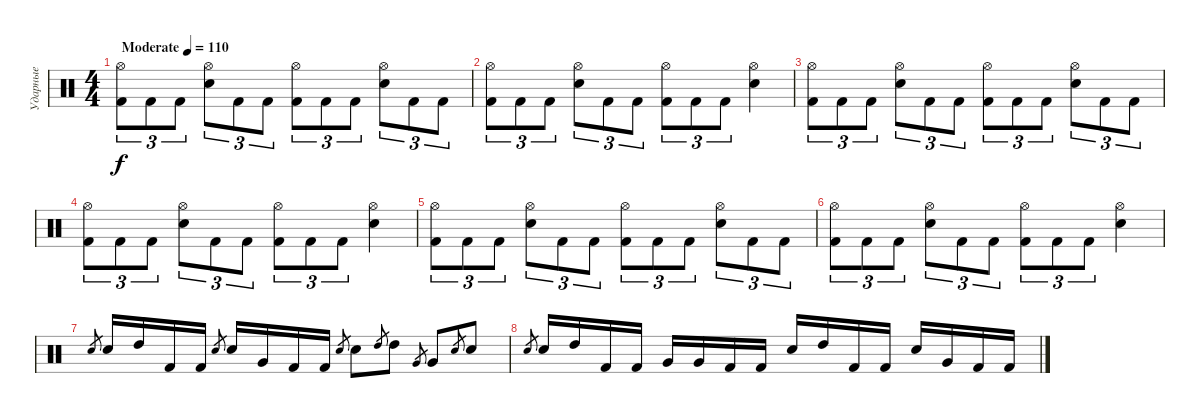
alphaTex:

\track ("Ударные" "Ударные") {instrument percussion}
\staff {score}
\articulation defaults
\ts (4 4)
\tempo (110 "Moderate")
\clef neutral
\ks c
("Kick (hit) 2" "Hi-Hat (open)").8{tu (3 2) dy f} "Kick (hit) 2".8{tu (3 2)} "Kick (hit) 2".8{tu (3 2)} ("Snare (hit) 2" "Hi-Hat (open)").8{tu (3 2)} "Kick (hit) 2".8{tu (3 2)} "Kick (hit) 2".8{tu (3 2)} ("Kick (hit) 2" "Hi-Hat (open)").8{tu (3 2)} "Kick (hit) 2".8{tu (3 2)} "Kick (hit) 2".8{tu (3 2)} ("Snare (hit) 2" "Hi-Hat (open)").8{tu (3 2)} "Kick (hit) 2".8{tu (3 2)} "Kick (hit) 2".8{tu (3 2)} |
("Kick (hit) 2" "Hi-Hat (open)").8{tu (3 2)} "Kick (hit) 2".8{tu (3 2)} "Kick (hit) 2".8{tu (3 2)} ("Snare (hit) 2" "Hi-Hat (open)").8{tu (3 2)} "Kick (hit) 2".8{tu (3 2)} "Kick (hit) 2".8{tu (3 2)} ("Kick (hit) 2" "Hi-Hat (open)").8{tu (3 2)} "Kick (hit) 2".8{tu (3 2)} "Kick (hit) 2".8{tu (3 2)} ("Snare (hit) 2" "Hi-Hat (open)").4 |
("Kick (hit) 2" "Hi-Hat (open)").8{tu (3 2)} "Kick (hit) 2".8{tu (3 2)} "Kick (hit) 2".8{tu (3 2)} ("Snare (hit) 2" "Hi-Hat (open)").8{tu (3 2)} "Kick (hit) 2".8{tu (3 2)} "Kick (hit) 2".8{tu (3 2)} ("Kick (hit) 2" "Hi-Hat (open)").8{tu (3 2)} "Kick (hit) 2".8{tu (3 2)} "Kick (hit) 2".8{tu (3 2)} ("Snare (hit) 2" "Hi-Hat (open)").8{tu (3 2)} "Kick (hit) 2".8{tu (3 2)} "Kick (hit) 2".8{tu (3 2)} |
("Kick (hit) 2" "Hi-Hat (open)").8{tu (3 2)} "Kick (hit) 2".8{tu (3 2)} "Kick (hit) 2".8{tu (3 2)} ("Snare (hit) 2" "Hi-Hat (open)").8{tu (3 2)} "Kick (hit) 2".8{tu (3 2)} "Kick (hit) 2".8{tu (3 2)} ("Kick (hit) 2" "Hi-Hat (open)").8{tu (3 2)} "Kick (hit) 2".8{tu (3 2)} "Kick (hit) 2".8{tu (3 2)} ("Snare (hit) 2" "Hi-Hat (open)").4 |
("Kick (hit) 2" "Hi-Hat (open)").8{tu (3 2)} "Kick (hit) 2".8{tu (3 2)} "Kick (hit) 2".8{tu (3 2)} ("Snare (hit) 2" "Hi-Hat (open)").8{tu (3 2)} "Kick (hit) 2".8{tu (3 2)} "Kick (hit) 2".8{tu (3 2)} ("Kick (hit) 2" "Hi-Hat (open)").8{tu (3 2)} "Kick (hit) 2".8{tu (3 2)} "Kick (hit) 2".8{tu (3 2)} ("Snare (hit) 2" "Hi-Hat (open)").8{tu (3 2)} "Kick (hit) 2".8{tu (3 2)} "Kick (hit) 2".8{tu (3 2)} |
("Kick (hit) 2" "Hi-Hat (open)").8{tu (3 2)} "Kick (hit) 2".8{tu (3 2)} "Kick (hit) 2".8{tu (3 2)} ("Snare (hit) 2" "Hi-Hat (open)").8{tu (3 2)} "Kick (hit) 2".8{tu (3 2)} "Kick (hit) 2".8{tu (3 2)} ("Kick (hit) 2" "Hi-Hat (open)").8{tu (3 2)} "Kick (hit) 2".8{tu (3 2)} "Kick (hit) 2".8{tu (3 2)} ("Snare (hit) 2" "Hi-Hat (open)").4 |
"Snare (hit) 2".8{gr} "Snare (hit) 2".16 "High Tom (hit)".16 "Kick (hit) 2".16 "Kick (hit) 2".16 "Snare (hit) 2".8{gr} "Snare (hit) 2".16 "Very Low Tom (hit)".16 "Kick (hit) 2".16 "Kick (hit) 2".16 "Snare (hit) 2".8{gr} "Snare (hit) 2".8 "High Tom (hit)".8{gr} "High Tom (hit)".8 "Very Low Tom (hit)".8{gr} "Very Low Tom (hit)".8 "Snare (hit) 2".8{gr} "Snare (hit) 2".8 |
"Snare (hit) 2".8{gr} "Snare (hit) 2".16 "High Tom (hit)".16 "Kick (hit) 2".16 "Kick (hit) 2".16 "Very Low Tom (hit)".16 "Very Low Tom (hit)".16 "Kick (hit) 2".16 "Kick (hit) 2".16 "Snare (hit) 2".16 "High Tom (hit)".16 "Kick (hit) 2".16 "Kick (hit) 2".16 "Snare (hit) 2".16 "Very Low Tom (hit)".16 "Kick (hit) 2".16 "Kick (hit) 2".16
